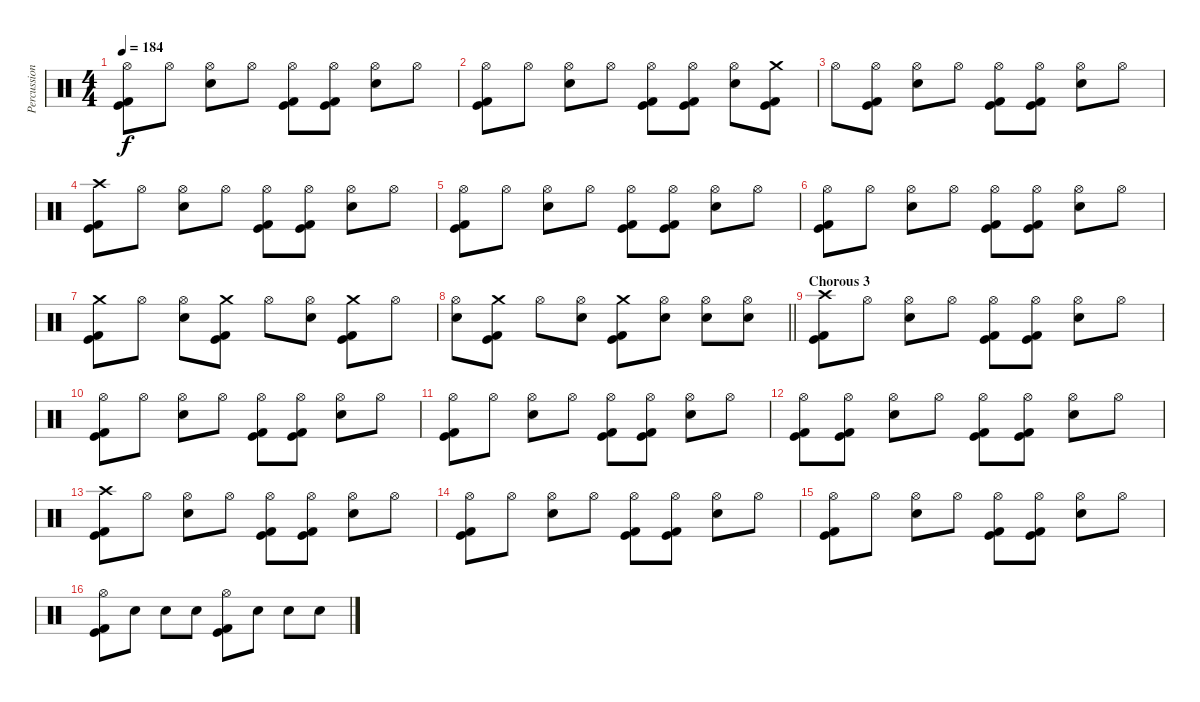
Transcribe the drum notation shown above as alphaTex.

\track ("Percussion" "Percussion") {instrument percussion}
\staff {score}
\articulation defaults
\ts (4 4)
\tempo 184
\clef neutral
\ks c
("Hi-Hat (open)" "Kick (hit)" "Kick (hit) 2").8{dy f} "Hi-Hat (open)".8 ("Hi-Hat (open)" "Electric Snare (hit)").8 "Hi-Hat (open)".8 ("Hi-Hat (open)" "Kick (hit)" "Kick (hit) 2").8 ("Hi-Hat (open)" "Kick (hit)" "Kick (hit) 2").8 ("Hi-Hat (open)" "Electric Snare (hit)").8 "Hi-Hat (open)".8 |
("Hi-Hat (open)" "Kick (hit)" "Kick (hit) 2").8 "Hi-Hat (open)".8 ("Hi-Hat (open)" "Electric Snare (hit)").8 "Hi-Hat (open)".8 ("Hi-Hat (open)" "Kick (hit)" "Kick (hit) 2").8 ("Hi-Hat (open)" "Kick (hit)" "Kick (hit) 2").8 ("Hi-Hat (open)" "Electric Snare (hit)").8 ("Crash medium (hit)" "Kick (hit)" "Kick (hit) 2").8 |
"Hi-Hat (open)".8 ("Hi-Hat (open)" "Kick (hit)" "Kick (hit) 2").8 ("Hi-Hat (open)" "Electric Snare (hit)").8 "Hi-Hat (open)".8 ("Hi-Hat (open)" "Kick (hit)" "Kick (hit) 2").8 ("Hi-Hat (open)" "Kick (hit)" "Kick (hit) 2").8 ("Hi-Hat (open)" "Electric Snare (hit)").8 "Hi-Hat (open)".8 |
("Crash high (hit)" "Kick (hit)" "Kick (hit) 2").8 "Hi-Hat (open)".8 ("Hi-Hat (open)" "Electric Snare (hit)").8 "Hi-Hat (open)".8 ("Hi-Hat (open)" "Kick (hit)" "Kick (hit) 2").8 ("Hi-Hat (open)" "Kick (hit)" "Kick (hit) 2").8 ("Hi-Hat (open)" "Electric Snare (hit)").8 "Hi-Hat (open)".8 |
("Hi-Hat (open)" "Kick (hit)" "Kick (hit) 2").8 "Hi-Hat (open)".8 ("Hi-Hat (open)" "Electric Snare (hit)").8 "Hi-Hat (open)".8 ("Hi-Hat (open)" "Kick (hit)" "Kick (hit) 2").8 ("Hi-Hat (open)" "Kick (hit)" "Kick (hit) 2").8 ("Hi-Hat (open)" "Electric Snare (hit)").8 "Hi-Hat (open)".8 |
("Hi-Hat (open)" "Kick (hit)" "Kick (hit) 2").8 "Hi-Hat (open)".8 ("Hi-Hat (open)" "Electric Snare (hit)").8 "Hi-Hat (open)".8 ("Hi-Hat (open)" "Kick (hit)" "Kick (hit) 2").8 ("Hi-Hat (open)" "Kick (hit)" "Kick (hit) 2").8 ("Hi-Hat (open)" "Electric Snare (hit)").8 "Hi-Hat (open)".8 |
("Crash medium (hit)" "Kick (hit)" "Kick (hit) 2").8 "Hi-Hat (open)".8 ("Hi-Hat (open)" "Electric Snare (hit)").8 ("Crash medium (hit)" "Kick (hit)" "Kick (hit) 2").8 "Hi-Hat (open)".8 ("Hi-Hat (open)" "Electric Snare (hit)").8 ("Crash medium (hit)" "Kick (hit)" "Kick (hit) 2").8 "Hi-Hat (open)".8 |
\barLineRight lightlight
("Hi-Hat (open)" "Electric Snare (hit)").8 ("Crash medium (hit)" "Kick (hit)" "Kick (hit) 2").8 "Hi-Hat (open)".8 ("Hi-Hat (open)" "Electric Snare (hit)").8 ("Crash medium (hit)" "Kick (hit)" "Kick (hit) 2").8 ("Hi-Hat (open)" "Electric Snare (hit)").8 ("Hi-Hat (open)" "Electric Snare (hit)").8 ("Hi-Hat (open)" "Electric Snare (hit)").8 |
\section ("" "Chorous 3")
("Crash high (hit)" "Kick (hit)" "Kick (hit) 2").8 "Hi-Hat (open)".8 ("Hi-Hat (open)" "Electric Snare (hit)").8 "Hi-Hat (open)".8 ("Hi-Hat (open)" "Kick (hit)" "Kick (hit) 2").8 ("Hi-Hat (open)" "Kick (hit)" "Kick (hit) 2").8 ("Hi-Hat (open)" "Electric Snare (hit)").8 "Hi-Hat (open)".8 |
("Hi-Hat (open)" "Kick (hit)" "Kick (hit) 2").8 "Hi-Hat (open)".8 ("Hi-Hat (open)" "Electric Snare (hit)").8 "Hi-Hat (open)".8 ("Hi-Hat (open)" "Kick (hit)" "Kick (hit) 2").8 ("Hi-Hat (open)" "Kick (hit)" "Kick (hit) 2").8 ("Hi-Hat (open)" "Electric Snare (hit)").8 "Hi-Hat (open)".8 |
("Hi-Hat (open)" "Kick (hit)" "Kick (hit) 2").8 "Hi-Hat (open)".8 ("Hi-Hat (open)" "Electric Snare (hit)").8 "Hi-Hat (open)".8 ("Hi-Hat (open)" "Kick (hit)" "Kick (hit) 2").8 ("Hi-Hat (open)" "Kick (hit)" "Kick (hit) 2").8 ("Hi-Hat (open)" "Electric Snare (hit)").8 "Hi-Hat (open)".8 |
("Hi-Hat (open)" "Kick (hit)" "Kick (hit) 2").8 ("Hi-Hat (open)" "Kick (hit)" "Kick (hit) 2").8 ("Hi-Hat (open)" "Electric Snare (hit)").8 "Hi-Hat (open)".8 ("Hi-Hat (open)" "Kick (hit)" "Kick (hit) 2").8 ("Hi-Hat (open)" "Kick (hit)" "Kick (hit) 2").8 ("Hi-Hat (open)" "Electric Snare (hit)").8 "Hi-Hat (open)".8 |
("Crash high (hit)" "Kick (hit)" "Kick (hit) 2").8 "Hi-Hat (open)".8 ("Hi-Hat (open)" "Electric Snare (hit)").8 "Hi-Hat (open)".8 ("Hi-Hat (open)" "Kick (hit)" "Kick (hit) 2").8 ("Hi-Hat (open)" "Kick (hit)" "Kick (hit) 2").8 ("Hi-Hat (open)" "Electric Snare (hit)").8 "Hi-Hat (open)".8 |
("Hi-Hat (open)" "Kick (hit)" "Kick (hit) 2").8 "Hi-Hat (open)".8 ("Hi-Hat (open)" "Electric Snare (hit)").8 "Hi-Hat (open)".8 ("Hi-Hat (open)" "Kick (hit)" "Kick (hit) 2").8 ("Hi-Hat (open)" "Kick (hit)" "Kick (hit) 2").8 ("Hi-Hat (open)" "Electric Snare (hit)").8 "Hi-Hat (open)".8 |
("Hi-Hat (open)" "Kick (hit)" "Kick (hit) 2").8 "Hi-Hat (open)".8 ("Hi-Hat (open)" "Electric Snare (hit)").8 "Hi-Hat (open)".8 ("Hi-Hat (open)" "Kick (hit)" "Kick (hit) 2").8 ("Hi-Hat (open)" "Kick (hit)" "Kick (hit) 2").8 ("Hi-Hat (open)" "Electric Snare (hit)").8 "Hi-Hat (open)".8 |
("Hi-Hat (open)" "Kick (hit)" "Kick (hit) 2").8 "Electric Snare (hit)".8 "Electric Snare (hit)".8 "Electric Snare (hit)".8 ("Hi-Hat (open)" "Kick (hit)" "Kick (hit) 2").8 "Electric Snare (hit)".8 "Electric Snare (hit)".8 "Electric Snare (hit)".8
